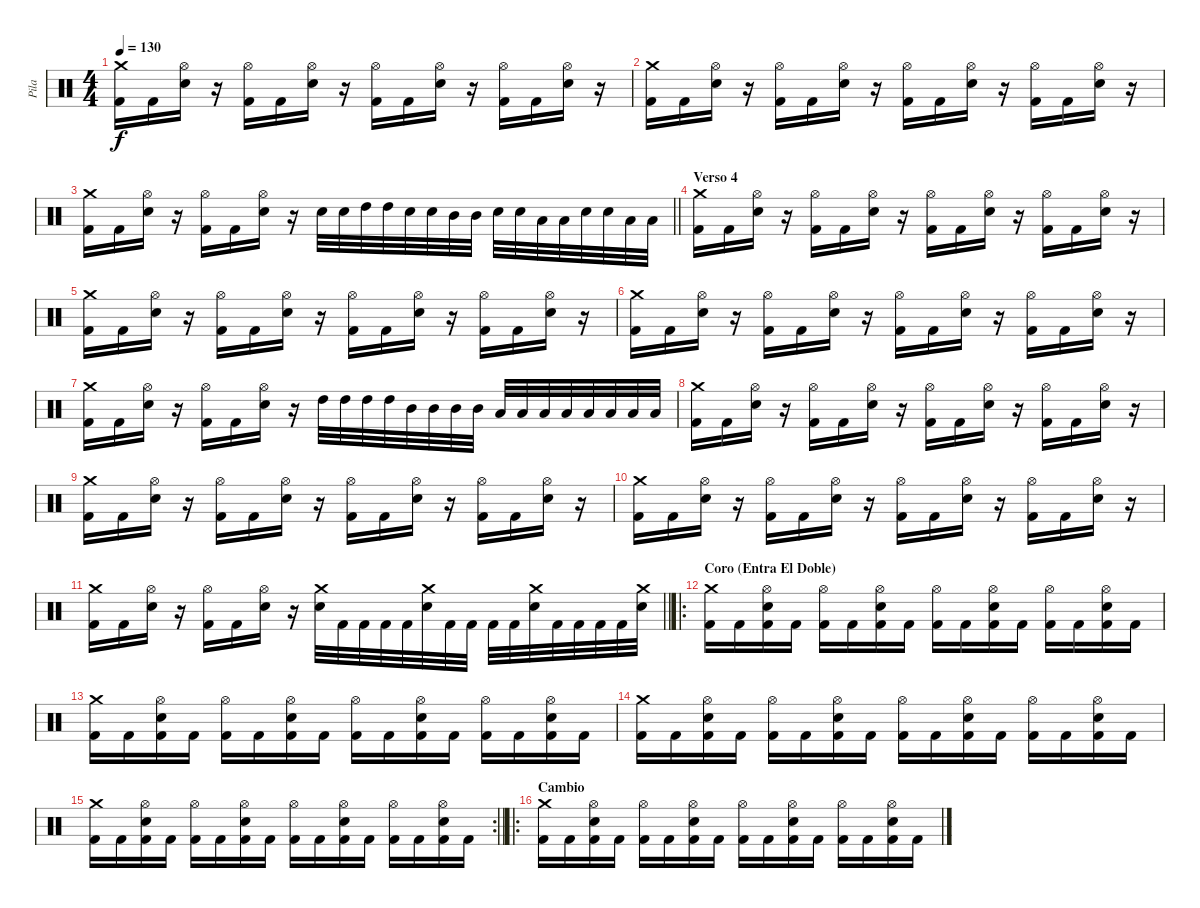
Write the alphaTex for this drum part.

\track ("Pila" "Pila") {instrument percussion}
\staff {score}
\articulation defaults
\ts (4 4)
\tempo 130
\clef neutral
\ks c
("Crash medium (hit)" "Kick (hit) 2").16{dy f} "Kick (hit) 2".16 ("Hi-Hat (open)" "Electric Snare (hit)").16 r.16 ("Hi-Hat (open)" "Kick (hit) 2").16 "Kick (hit) 2".16 ("Hi-Hat (open)" "Electric Snare (hit)").16 r.16 ("Hi-Hat (open)" "Kick (hit) 2").16 "Kick (hit) 2".16 ("Hi-Hat (open)" "Electric Snare (hit)").16 r.16 ("Hi-Hat (open)" "Kick (hit) 2").16 "Kick (hit) 2".16 ("Hi-Hat (open)" "Electric Snare (hit)").16 r.16 |
("Crash medium (hit)" "Kick (hit) 2").16 "Kick (hit) 2".16 ("Hi-Hat (open)" "Electric Snare (hit)").16 r.16 ("Hi-Hat (open)" "Kick (hit) 2").16 "Kick (hit) 2".16 ("Hi-Hat (open)" "Electric Snare (hit)").16 r.16 ("Hi-Hat (open)" "Kick (hit) 2").16 "Kick (hit) 2".16 ("Hi-Hat (open)" "Electric Snare (hit)").16 r.16 ("Hi-Hat (open)" "Kick (hit) 2").16 "Kick (hit) 2".16 ("Hi-Hat (open)" "Electric Snare (hit)").16 r.16 |
\barLineRight lightlight
("Crash medium (hit)" "Kick (hit) 2").16 "Kick (hit) 2".16 ("Hi-Hat (open)" "Electric Snare (hit)").16 r.16 ("Hi-Hat (open)" "Kick (hit) 2").16 "Kick (hit) 2".16 ("Hi-Hat (open)" "Electric Snare (hit)").16 r.16 "Electric Snare (hit)".32 "Electric Snare (hit)".32 "High Tom (hit)".32 "High Tom (hit)".32 "Electric Snare (hit)".32 "Electric Snare (hit)".32 "Mid Tom (hit)".32 "Mid Tom (hit)".32 "Electric Snare (hit)".32 "Electric Snare (hit)".32 "Low Tom (hit)".32 "Low Tom (hit)".32 "Electric Snare (hit)".32 "Electric Snare (hit)".32 "Low Floor Tom (hit)".32 "Low Floor Tom (hit)".32 |
\section ("" "Verso 4")
("Crash medium (hit)" "Kick (hit) 2").16 "Kick (hit) 2".16 ("Hi-Hat (open)" "Electric Snare (hit)").16 r.16 ("Hi-Hat (open)" "Kick (hit) 2").16 "Kick (hit) 2".16 ("Hi-Hat (open)" "Electric Snare (hit)").16 r.16 ("Hi-Hat (open)" "Kick (hit) 2").16 "Kick (hit) 2".16 ("Hi-Hat (open)" "Electric Snare (hit)").16 r.16 ("Hi-Hat (open)" "Kick (hit) 2").16 "Kick (hit) 2".16 ("Hi-Hat (open)" "Electric Snare (hit)").16 r.16 |
("Crash medium (hit)" "Kick (hit) 2").16 "Kick (hit) 2".16 ("Hi-Hat (open)" "Electric Snare (hit)").16 r.16 ("Hi-Hat (open)" "Kick (hit) 2").16 "Kick (hit) 2".16 ("Hi-Hat (open)" "Electric Snare (hit)").16 r.16 ("Hi-Hat (open)" "Kick (hit) 2").16 "Kick (hit) 2".16 ("Hi-Hat (open)" "Electric Snare (hit)").16 r.16 ("Hi-Hat (open)" "Kick (hit) 2").16 "Kick (hit) 2".16 ("Hi-Hat (open)" "Electric Snare (hit)").16 r.16 |
("Crash medium (hit)" "Kick (hit) 2").16 "Kick (hit) 2".16 ("Hi-Hat (open)" "Electric Snare (hit)").16 r.16 ("Hi-Hat (open)" "Kick (hit) 2").16 "Kick (hit) 2".16 ("Hi-Hat (open)" "Electric Snare (hit)").16 r.16 ("Hi-Hat (open)" "Kick (hit) 2").16 "Kick (hit) 2".16 ("Hi-Hat (open)" "Electric Snare (hit)").16 r.16 ("Hi-Hat (open)" "Kick (hit) 2").16 "Kick (hit) 2".16 ("Hi-Hat (open)" "Electric Snare (hit)").16 r.16 |
("Crash medium (hit)" "Kick (hit) 2").16 "Kick (hit) 2".16 ("Hi-Hat (open)" "Electric Snare (hit)").16 r.16 ("Hi-Hat (open)" "Kick (hit) 2").16 "Kick (hit) 2".16 ("Hi-Hat (open)" "Electric Snare (hit)").16 r.16 "High Tom (hit)".32 "High Tom (hit)".32 "High Tom (hit)".32 "High Tom (hit)".32 "Mid Tom (hit)".32 "Mid Tom (hit)".32 "Mid Tom (hit)".32 "Mid Tom (hit)".32 "Low Tom (hit)".32 "Low Tom (hit)".32 "Low Tom (hit)".32 "Low Tom (hit)".32 "Low Floor Tom (hit)".32 "Low Floor Tom (hit)".32 "Low Floor Tom (hit)".32 "Low Floor Tom (hit)".32 |
("Crash medium (hit)" "Kick (hit) 2").16 "Kick (hit) 2".16 ("Hi-Hat (open)" "Electric Snare (hit)").16 r.16 ("Hi-Hat (open)" "Kick (hit) 2").16 "Kick (hit) 2".16 ("Hi-Hat (open)" "Electric Snare (hit)").16 r.16 ("Hi-Hat (open)" "Kick (hit) 2").16 "Kick (hit) 2".16 ("Hi-Hat (open)" "Electric Snare (hit)").16 r.16 ("Hi-Hat (open)" "Kick (hit) 2").16 "Kick (hit) 2".16 ("Hi-Hat (open)" "Electric Snare (hit)").16 r.16 |
("Crash medium (hit)" "Kick (hit) 2").16 "Kick (hit) 2".16 ("Hi-Hat (open)" "Electric Snare (hit)").16 r.16 ("Hi-Hat (open)" "Kick (hit) 2").16 "Kick (hit) 2".16 ("Hi-Hat (open)" "Electric Snare (hit)").16 r.16 ("Hi-Hat (open)" "Kick (hit) 2").16 "Kick (hit) 2".16 ("Hi-Hat (open)" "Electric Snare (hit)").16 r.16 ("Hi-Hat (open)" "Kick (hit) 2").16 "Kick (hit) 2".16 ("Hi-Hat (open)" "Electric Snare (hit)").16 r.16 |
("Crash medium (hit)" "Kick (hit) 2").16 "Kick (hit) 2".16 ("Hi-Hat (open)" "Electric Snare (hit)").16 r.16 ("Hi-Hat (open)" "Kick (hit) 2").16 "Kick (hit) 2".16 ("Hi-Hat (open)" "Electric Snare (hit)").16 r.16 ("Hi-Hat (open)" "Kick (hit) 2").16 "Kick (hit) 2".16 ("Hi-Hat (open)" "Electric Snare (hit)").16 r.16 ("Hi-Hat (open)" "Kick (hit) 2").16 "Kick (hit) 2".16 ("Hi-Hat (open)" "Electric Snare (hit)").16 r.16 |
\barLineRight lightlight
("Crash medium (hit)" "Kick (hit) 2").16 "Kick (hit) 2".16 ("Hi-Hat (open)" "Electric Snare (hit)").16 r.16 ("Hi-Hat (open)" "Kick (hit) 2").16 "Kick (hit) 2".16 ("Hi-Hat (open)" "Electric Snare (hit)").16 r.16 ("Crash medium (hit)" "Electric Snare (hit)").32 "Kick (hit) 2".32 "Kick (hit) 2".32 "Kick (hit) 2".32 "Kick (hit) 2".32 ("Crash medium (hit)" "Electric Snare (hit)").32 "Kick (hit) 2".32 "Kick (hit) 2".32 "Kick (hit) 2".32 "Kick (hit) 2".32 ("Crash medium (hit)" "Electric Snare (hit)").32 "Kick (hit) 2".32 "Kick (hit) 2".32 "Kick (hit) 2".32 "Kick (hit) 2".32 ("Crash medium (hit)" "Electric Snare (hit)").32 |
\ro
\section ("" "Coro (Entra El Doble)")
("Crash medium (hit)" "Kick (hit) 2").16 "Kick (hit) 2".16 ("Hi-Hat (open)" "Electric Snare (hit)" "Kick (hit) 2").16 "Kick (hit) 2".16 ("Hi-Hat (open)" "Kick (hit) 2").16 "Kick (hit) 2".16 ("Hi-Hat (open)" "Electric Snare (hit)" "Kick (hit) 2").16 "Kick (hit) 2".16 ("Hi-Hat (open)" "Kick (hit) 2").16 "Kick (hit) 2".16 ("Hi-Hat (open)" "Electric Snare (hit)" "Kick (hit) 2").16 "Kick (hit) 2".16 ("Hi-Hat (open)" "Kick (hit) 2").16 "Kick (hit) 2".16 ("Hi-Hat (open)" "Electric Snare (hit)" "Kick (hit) 2").16 "Kick (hit) 2".16 |
("Crash medium (hit)" "Kick (hit) 2").16 "Kick (hit) 2".16 ("Hi-Hat (open)" "Electric Snare (hit)" "Kick (hit) 2").16 "Kick (hit) 2".16 ("Hi-Hat (open)" "Kick (hit) 2").16 "Kick (hit) 2".16 ("Hi-Hat (open)" "Electric Snare (hit)" "Kick (hit) 2").16 "Kick (hit) 2".16 ("Hi-Hat (open)" "Kick (hit) 2").16 "Kick (hit) 2".16 ("Hi-Hat (open)" "Electric Snare (hit)" "Kick (hit) 2").16 "Kick (hit) 2".16 ("Hi-Hat (open)" "Kick (hit) 2").16 "Kick (hit) 2".16 ("Hi-Hat (open)" "Electric Snare (hit)" "Kick (hit) 2").16 "Kick (hit) 2".16 |
("Crash medium (hit)" "Kick (hit) 2").16 "Kick (hit) 2".16 ("Hi-Hat (open)" "Electric Snare (hit)" "Kick (hit) 2").16 "Kick (hit) 2".16 ("Hi-Hat (open)" "Kick (hit) 2").16 "Kick (hit) 2".16 ("Hi-Hat (open)" "Electric Snare (hit)" "Kick (hit) 2").16 "Kick (hit) 2".16 ("Hi-Hat (open)" "Kick (hit) 2").16 "Kick (hit) 2".16 ("Hi-Hat (open)" "Electric Snare (hit)" "Kick (hit) 2").16 "Kick (hit) 2".16 ("Hi-Hat (open)" "Kick (hit) 2").16 "Kick (hit) 2".16 ("Hi-Hat (open)" "Electric Snare (hit)" "Kick (hit) 2").16 "Kick (hit) 2".16 |
\rc 2
\barLineRight lightlight
("Crash medium (hit)" "Kick (hit) 2").16 "Kick (hit) 2".16 ("Hi-Hat (open)" "Electric Snare (hit)" "Kick (hit) 2").16 "Kick (hit) 2".16 ("Hi-Hat (open)" "Kick (hit) 2").16 "Kick (hit) 2".16 ("Hi-Hat (open)" "Electric Snare (hit)" "Kick (hit) 2").16 "Kick (hit) 2".16 ("Hi-Hat (open)" "Kick (hit) 2").16 "Kick (hit) 2".16 ("Hi-Hat (open)" "Electric Snare (hit)" "Kick (hit) 2").16 "Kick (hit) 2".16 ("Hi-Hat (open)" "Kick (hit) 2").16 "Kick (hit) 2".16 ("Hi-Hat (open)" "Electric Snare (hit)" "Kick (hit) 2").16 "Kick (hit) 2".16 |
\ro
\section ("" "Cambio")
("Crash medium (hit)" "Kick (hit) 2").16 "Kick (hit) 2".16 ("Hi-Hat (open)" "Electric Snare (hit)" "Kick (hit) 2").16 "Kick (hit) 2".16 ("Hi-Hat (open)" "Kick (hit) 2").16 "Kick (hit) 2".16 ("Hi-Hat (open)" "Electric Snare (hit)" "Kick (hit) 2").16 "Kick (hit) 2".16 ("Hi-Hat (open)" "Kick (hit) 2").16 "Kick (hit) 2".16 ("Hi-Hat (open)" "Electric Snare (hit)" "Kick (hit) 2").16 "Kick (hit) 2".16 ("Hi-Hat (open)" "Kick (hit) 2").16 "Kick (hit) 2".16 ("Hi-Hat (open)" "Electric Snare (hit)" "Kick (hit) 2").16 "Kick (hit) 2".16
